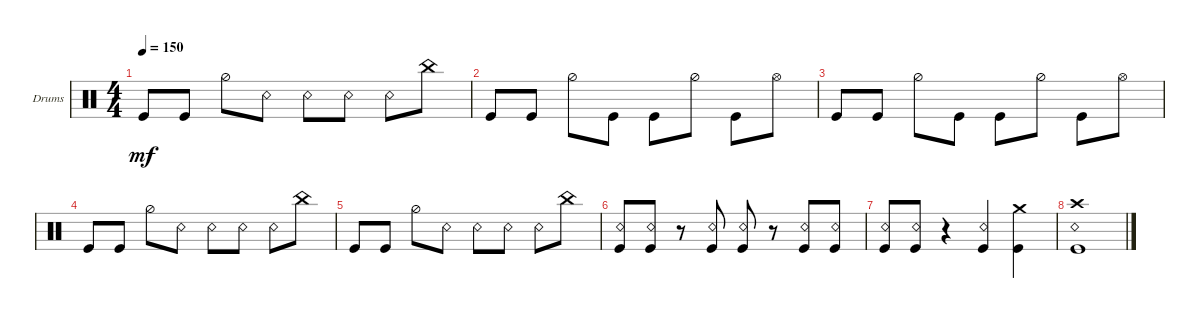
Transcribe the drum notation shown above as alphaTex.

\bracketExtendMode groupsimilarinstruments
\firstSystemTrackNameOrientation horizontal
\otherSystemsTrackNameOrientation horizontal
\track ("Drumkit" "Drums") {instrument percussion}
\staff {score}
\articulation defaults
\ts (4 4)
\tempo 150
\clef neutral
\ks c "Kick (hit)".8{dy mf} "Kick (hit)".8 "Hi-Hat (half)".8 "Snare (rim shot)".8 "Snare (rim shot)".8 "Snare (rim shot)".8 "Snare (rim shot)".8 "China (hit)".8
|
"Kick (hit)".8 "Kick (hit)".8 "Hi-Hat (half)".8 "Kick (hit)".8 "Kick (hit)".8 "Hi-Hat (half)".8 "Kick (hit)".8 "Hi-Hat (open)".8 |
"Kick (hit)".8 "Kick (hit)".8 "Hi-Hat (half)".8 "Kick (hit)".8 "Kick (hit)".8 "Hi-Hat (half)".8 "Kick (hit)".8 "Hi-Hat (open)".8 |
"Kick (hit)".8 "Kick (hit)".8 "Hi-Hat (half)".8 "Snare (rim shot)".8 "Snare (rim shot)".8 "Snare (rim shot)".8 "Snare (rim shot)".8 "China (hit)".8 |
"Kick (hit)".8 "Kick (hit)".8 "Hi-Hat (half)".8 "Snare (rim shot)".8 "Snare (rim shot)".8 "Snare (rim shot)".8 "Snare (rim shot)".8 "China (hit)".8 |
("Snare (rim shot)" "Kick (hit)").8 ("Snare (rim shot)" "Kick (hit)").8 r.8 ("Snare (rim shot)" "Kick (hit)").8 ("Snare (rim shot)" "Kick (hit)").8 r.8 ("Snare (rim shot)" "Kick (hit)").8 ("Snare (rim shot)" "Kick (hit)").8 |
("Snare (rim shot)" "Kick (hit)").8 ("Snare (rim shot)" "Kick (hit)").8 r.4 ("Snare (rim shot)" "Kick (hit)").4 ("Crash medium (hit)" "Kick (hit)").4 |
("Snare (rim shot)" "Crash high (hit)" "Kick (hit)").1
